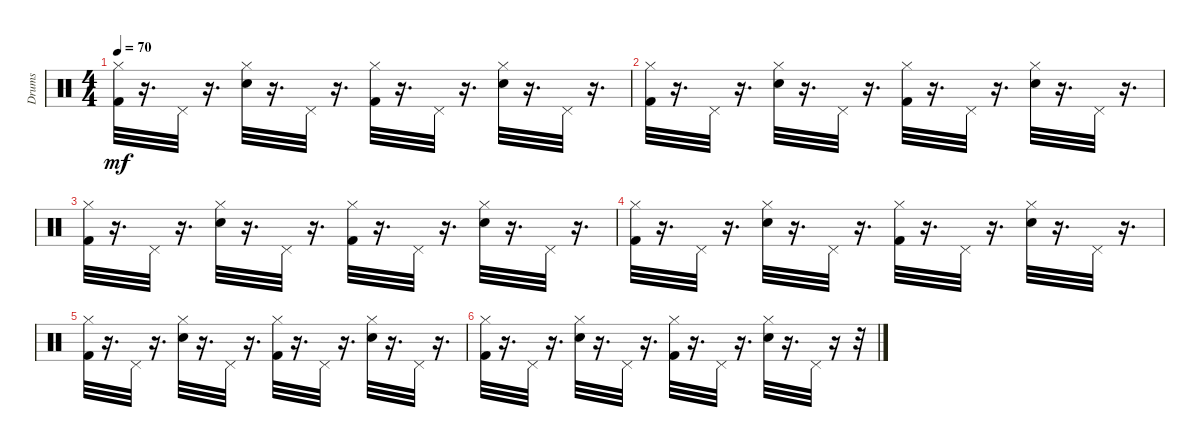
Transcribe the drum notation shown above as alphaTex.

\track ("Drums" "Drums") {instrument percussion}
\staff {score}
\articulation defaults
\ts (4 4)
\tempo 70
\clef neutral
\ks c
("Hi-Hat (closed)" "Kick (hit) 2").32{dy mf} r.16{d} "Pedal Hi-Hat (hit)".32 r.16{d} ("Hi-Hat (closed)" "Snare (hit) 2").32 r.16{d} "Pedal Hi-Hat (hit)".32 r.16{d} ("Hi-Hat (closed)" "Kick (hit) 2").32 r.16{d} "Pedal Hi-Hat (hit)".32 r.16{d} ("Hi-Hat (closed)" "Snare (hit) 2").32 r.16{d} "Pedal Hi-Hat (hit)".32 r.16{d} |
("Hi-Hat (closed)" "Kick (hit) 2").32{volume 13} r.16{d} "Pedal Hi-Hat (hit)".32{volume 12} r.16{d} ("Hi-Hat (closed)" "Snare (hit) 2").32{volume 12} r.16{d} "Pedal Hi-Hat (hit)".32{volume 12} r.16{d} ("Hi-Hat (closed)" "Kick (hit) 2").32{volume 11} r.16{d} "Pedal Hi-Hat (hit)".32{volume 11} r.16{d} ("Hi-Hat (closed)" "Snare (hit) 2").32{volume 11} r.16{d} "Pedal Hi-Hat (hit)".32{volume 10} r.16{d} |
("Hi-Hat (closed)" "Kick (hit) 2").32{volume 10} r.16{d} "Pedal Hi-Hat (hit)".32{volume 10} r.16{d} ("Hi-Hat (closed)" "Snare (hit) 2").32{volume 9} r.16{d} "Pedal Hi-Hat (hit)".32{volume 9} r.16{d} ("Hi-Hat (closed)" "Kick (hit) 2").32{volume 9} r.16{d} "Pedal Hi-Hat (hit)".32{volume 9} r.16{d} ("Hi-Hat (closed)" "Snare (hit) 2").32{volume 8} r.16{d} "Pedal Hi-Hat (hit)".32{volume 8} r.16{d} |
("Hi-Hat (closed)" "Kick (hit) 2").32{volume 8} r.16{d} "Pedal Hi-Hat (hit)".32{volume 7} r.16{d} ("Hi-Hat (closed)" "Snare (hit) 2").32{volume 7} r.16{d} "Pedal Hi-Hat (hit)".32{volume 7} r.16{d} ("Hi-Hat (closed)" "Kick (hit) 2").32{volume 6} r.16{d} "Pedal Hi-Hat (hit)".32{volume 6} r.16{d} ("Hi-Hat (closed)" "Snare (hit) 2").32{volume 6} r.16{d} "Pedal Hi-Hat (hit)".32{volume 5} r.16{d} |
("Hi-Hat (closed)" "Kick (hit) 2").32{volume 5} r.16{d} "Pedal Hi-Hat (hit)".32{volume 5} r.16{d} ("Hi-Hat (closed)" "Snare (hit) 2").32{volume 4} r.16{d} "Pedal Hi-Hat (hit)".32{volume 4} r.16{d} ("Hi-Hat (closed)" "Kick (hit) 2").32{volume 4} r.16{d} "Pedal Hi-Hat (hit)".32{volume 4} r.16{d} ("Hi-Hat (closed)" "Snare (hit) 2").32{volume 3} r.16{d} "Pedal Hi-Hat (hit)".32{volume 3} r.16{d} |
("Hi-Hat (closed)" "Kick (hit) 2").32{volume 3} r.16{d} "Pedal Hi-Hat (hit)".32{volume 2} r.16{d} ("Hi-Hat (closed)" "Snare (hit) 2").32{volume 2} r.16{d} "Pedal Hi-Hat (hit)".32{volume 2} r.16{d} ("Hi-Hat (closed)" "Kick (hit) 2").32{volume 1} r.16{d} "Pedal Hi-Hat (hit)".32{volume 1} r.16{d} ("Hi-Hat (closed)" "Snare (hit) 2").32{volume 1} r.16{d} "Pedal Hi-Hat (hit)".32{volume 0} r.16 r.32
